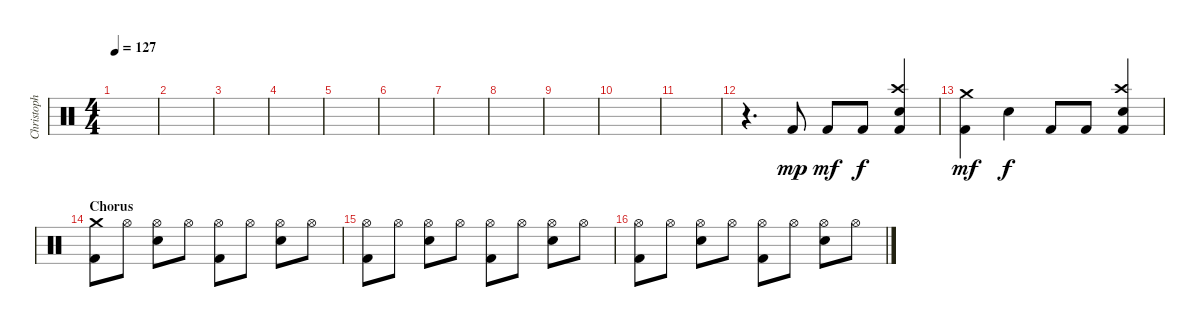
\track ("Christoph Doom Schneider - Drums" "Christoph ") {instrument percussion}
\staff {score}
\articulation defaults
\ts (4 4)
\tempo 127
\clef neutral
\ks c
|
|
|
|
|
|
|
|
|
|
|
r.4{d} "Kick (hit) 2".8{dy mp} "Kick (hit) 2".8{dy mf} "Kick (hit) 2".8{dy f} ("Crash high (hit)" "Electric Snare (hit)" "Kick (hit) 2").4 |
("Crash medium (hit)" "Kick (hit) 2").4{dy mf} "Electric Snare (hit)".4{dy f} "Kick (hit) 2".8 "Kick (hit) 2".8 ("Crash high (hit)" "Electric Snare (hit)" "Kick (hit) 2").4 |
\section ("" "Chorus")
("Crash medium (hit)" "Kick (hit) 2").8 "Hi-Hat (open)".8 ("Hi-Hat (open)" "Electric Snare (hit)").8 "Hi-Hat (open)".8 ("Hi-Hat (open)" "Kick (hit) 2").8 "Hi-Hat (open)".8 ("Hi-Hat (open)" "Electric Snare (hit)").8 "Hi-Hat (open)".8 |
("Hi-Hat (open)" "Kick (hit) 2").8 "Hi-Hat (open)".8 ("Hi-Hat (open)" "Electric Snare (hit)").8 "Hi-Hat (open)".8 ("Hi-Hat (open)" "Kick (hit) 2").8 "Hi-Hat (open)".8 ("Hi-Hat (open)" "Electric Snare (hit)").8 "Hi-Hat (open)".8 |
("Hi-Hat (open)" "Kick (hit) 2").8 "Hi-Hat (open)".8 ("Hi-Hat (open)" "Electric Snare (hit)").8 "Hi-Hat (open)".8 ("Hi-Hat (open)" "Kick (hit) 2").8 "Hi-Hat (open)".8 ("Hi-Hat (open)" "Electric Snare (hit)").8 "Hi-Hat (open)".8
